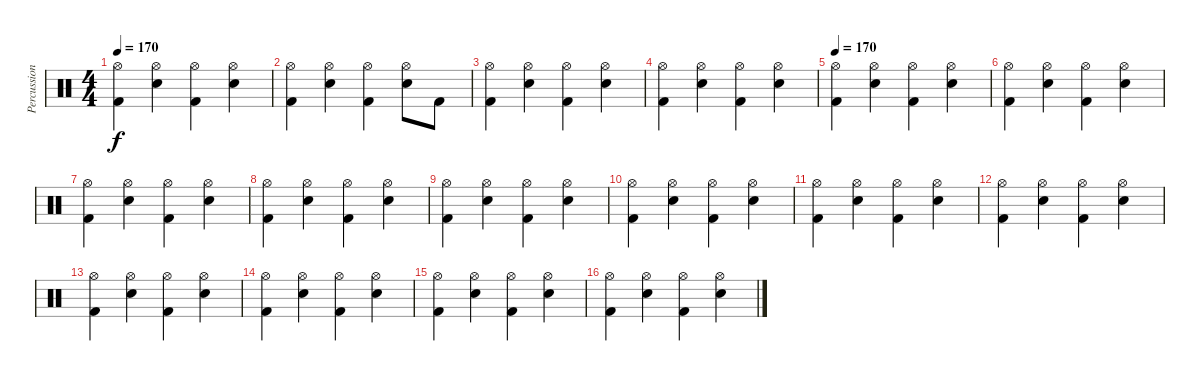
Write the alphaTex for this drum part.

\track ("Percussion" "Percussion") {instrument percussion}
\staff {score}
\articulation defaults
\ts (4 4)
\tempo 170
\clef neutral
\ks c
("Hi-Hat (open)" "Kick (hit) 2").4{dy f} ("Hi-Hat (open)" "Electric Snare (hit)").4 ("Hi-Hat (open)" "Kick (hit) 2").4 ("Hi-Hat (open)" "Electric Snare (hit)").4 |
("Hi-Hat (open)" "Kick (hit) 2").4 ("Hi-Hat (open)" "Electric Snare (hit)").4 ("Hi-Hat (open)" "Kick (hit) 2").4 ("Hi-Hat (open)" "Electric Snare (hit)").8 "Kick (hit) 2".8 |
("Hi-Hat (open)" "Kick (hit) 2").4 ("Hi-Hat (open)" "Electric Snare (hit)").4 ("Hi-Hat (open)" "Kick (hit) 2").4 ("Hi-Hat (open)" "Electric Snare (hit)").4 |
("Hi-Hat (open)" "Kick (hit) 2").4 ("Hi-Hat (open)" "Electric Snare (hit)").4 ("Hi-Hat (open)" "Kick (hit) 2").4 ("Hi-Hat (open)" "Electric Snare (hit)").4 |
\tempo 170
("Hi-Hat (open)" "Kick (hit) 2").4 ("Hi-Hat (open)" "Electric Snare (hit)").4 ("Hi-Hat (open)" "Kick (hit) 2").4 ("Hi-Hat (open)" "Electric Snare (hit)").4 |
("Hi-Hat (open)" "Kick (hit) 2").4 ("Hi-Hat (open)" "Electric Snare (hit)").4 ("Hi-Hat (open)" "Kick (hit) 2").4 ("Hi-Hat (open)" "Electric Snare (hit)").4 |
("Hi-Hat (open)" "Kick (hit) 2").4 ("Hi-Hat (open)" "Electric Snare (hit)").4 ("Hi-Hat (open)" "Kick (hit) 2").4 ("Hi-Hat (open)" "Electric Snare (hit)").4 |
("Hi-Hat (open)" "Kick (hit) 2").4 ("Hi-Hat (open)" "Electric Snare (hit)").4 ("Hi-Hat (open)" "Kick (hit) 2").4 ("Hi-Hat (open)" "Electric Snare (hit)").4 |
("Hi-Hat (open)" "Kick (hit) 2").4 ("Hi-Hat (open)" "Electric Snare (hit)").4 ("Hi-Hat (open)" "Kick (hit) 2").4 ("Hi-Hat (open)" "Electric Snare (hit)").4 |
("Hi-Hat (open)" "Kick (hit) 2").4 ("Hi-Hat (open)" "Electric Snare (hit)").4 ("Hi-Hat (open)" "Kick (hit) 2").4 ("Hi-Hat (open)" "Electric Snare (hit)").4 |
("Hi-Hat (open)" "Kick (hit) 2").4 ("Hi-Hat (open)" "Electric Snare (hit)").4 ("Hi-Hat (open)" "Kick (hit) 2").4 ("Hi-Hat (open)" "Electric Snare (hit)").4 |
("Hi-Hat (open)" "Kick (hit) 2").4 ("Hi-Hat (open)" "Electric Snare (hit)").4 ("Hi-Hat (open)" "Kick (hit) 2").4 ("Hi-Hat (open)" "Electric Snare (hit)").4 |
("Hi-Hat (open)" "Kick (hit) 2").4 ("Hi-Hat (open)" "Electric Snare (hit)").4 ("Hi-Hat (open)" "Kick (hit) 2").4 ("Hi-Hat (open)" "Electric Snare (hit)").4 |
("Hi-Hat (open)" "Kick (hit) 2").4 ("Hi-Hat (open)" "Electric Snare (hit)").4 ("Hi-Hat (open)" "Kick (hit) 2").4 ("Hi-Hat (open)" "Electric Snare (hit)").4 |
("Hi-Hat (open)" "Kick (hit) 2").4 ("Hi-Hat (open)" "Electric Snare (hit)").4 ("Hi-Hat (open)" "Kick (hit) 2").4 ("Hi-Hat (open)" "Electric Snare (hit)").4 |
("Hi-Hat (open)" "Kick (hit) 2").4 ("Hi-Hat (open)" "Electric Snare (hit)").4 ("Hi-Hat (open)" "Kick (hit) 2").4 ("Hi-Hat (open)" "Electric Snare (hit)").4
